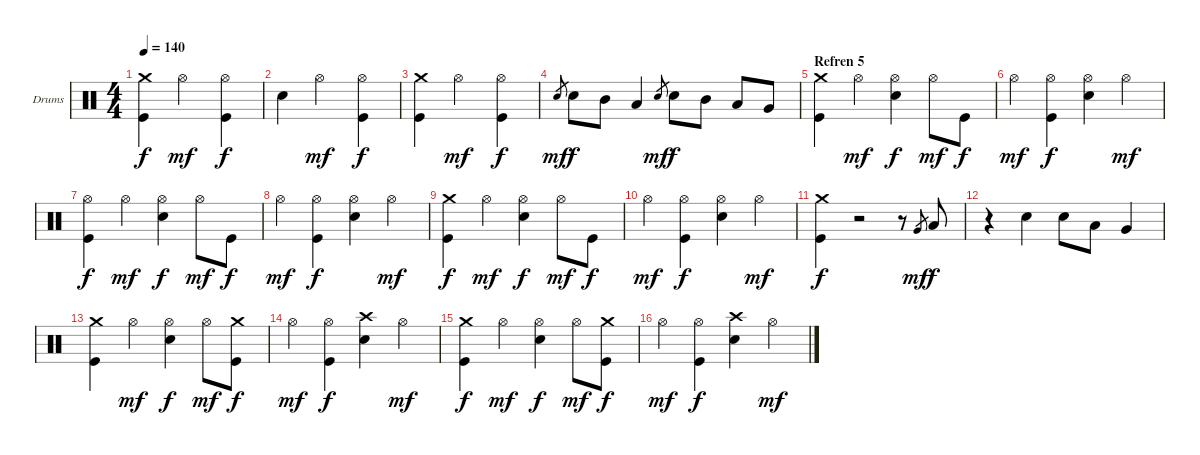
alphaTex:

\bracketExtendMode groupsimilarinstruments
\firstSystemTrackNameOrientation horizontal
\otherSystemsTrackNameOrientation horizontal
\track ("Drumkit" "Drums") {instrument percussion}
\staff {score}
\articulation defaults
\ts (4 4)
\tempo 140
\clef neutral
\ks c
("Kick (hit)" "Crash medium (hit)").4{dy f} "Hi-Hat (open)".2{dy mf} ("Kick (hit)" "Hi-Hat (open)").4{dy f} |
"Snare (hit) 2".4 "Hi-Hat (open)".2{dy mf} ("Kick (hit)" "Hi-Hat (open)").4{dy f} |
("Kick (hit)" "Crash medium (hit)").4 "Hi-Hat (open)".2{dy mf} ("Kick (hit)" "Hi-Hat (open)").4{dy f} |
"Snare (hit) 2".8{gr dy mf} "Snare (hit) 2".8{dy f} "Mid Tom (hit)".8 "Low Tom (hit)".4 "Snare (hit) 2".8{gr dy mf} "Snare (hit) 2".8{dy f} "Mid Tom (hit)".8 "Low Tom (hit)".8 "Very Low Tom (hit)".8 |
\section ("" "Refren 5")
("Kick (hit)" "Crash medium (hit)").4 "Hi-Hat (open)".4{dy mf} ("Snare (hit) 2" "Hi-Hat (open)").4{dy f} "Hi-Hat (open)".8{dy mf} "Kick (hit)".8{dy f} |
"Hi-Hat (open)".4{dy mf} ("Kick (hit)" "Hi-Hat (open)").4{dy f} ("Snare (hit) 2" "Hi-Hat (open)").4 "Hi-Hat (open)".4{dy mf} |
("Kick (hit)" "Hi-Hat (open)").4{dy f} "Hi-Hat (open)".4{dy mf} ("Snare (hit) 2" "Hi-Hat (open)").4{dy f} "Hi-Hat (open)".8{dy mf} "Kick (hit)".8{dy f} |
"Hi-Hat (open)".4{dy mf} ("Kick (hit)" "Hi-Hat (open)").4{dy f} ("Snare (hit) 2" "Hi-Hat (open)").4 "Hi-Hat (open)".4{dy mf} |
("Kick (hit)" "Crash medium (hit)").4{dy f} "Hi-Hat (open)".4{dy mf} ("Snare (hit) 2" "Hi-Hat (open)").4{dy f} "Hi-Hat (open)".8{dy mf} "Kick (hit)".8{dy f} |
"Hi-Hat (open)".4{dy mf} ("Kick (hit)" "Hi-Hat (open)").4{dy f} ("Snare (hit) 2" "Hi-Hat (open)").4 "Hi-Hat (open)".4{dy mf} |
("Kick (hit)" "Crash medium (hit)").4{dy f} r.2 r.8 "Very Low Tom (hit)".8{gr dy mf} "Low Tom (hit)".8{dy f} |
r.4 "Snare (hit) 2".4 "Snare (hit) 2".8 "Low Tom (hit)".8 "Very Low Tom (hit)".4 |
("Kick (hit)" "Crash medium (hit)").4 "Hi-Hat (open)".4{dy mf} ("Snare (hit) 2" "Hi-Hat (open)").4{dy f} "Hi-Hat (open)".8{dy mf} ("Kick (hit)" "Crash medium (hit)").8{dy f} |
"Hi-Hat (open)".4{dy mf} ("Kick (hit)" "Hi-Hat (open)").4{dy f} ("Snare (hit) 2" "Crash high (hit)").4 "Hi-Hat (open)".4{dy mf} |
("Kick (hit)" "Crash medium (hit)").4{dy f} "Hi-Hat (open)".4{dy mf} ("Snare (hit) 2" "Hi-Hat (open)").4{dy f} "Hi-Hat (open)".8{dy mf} ("Kick (hit)" "Crash medium (hit)").8{dy f} |
"Hi-Hat (open)".4{dy mf} ("Kick (hit)" "Hi-Hat (open)").4{dy f} ("Snare (hit) 2" "Crash high (hit)").4 "Hi-Hat (open)".4{dy mf}
